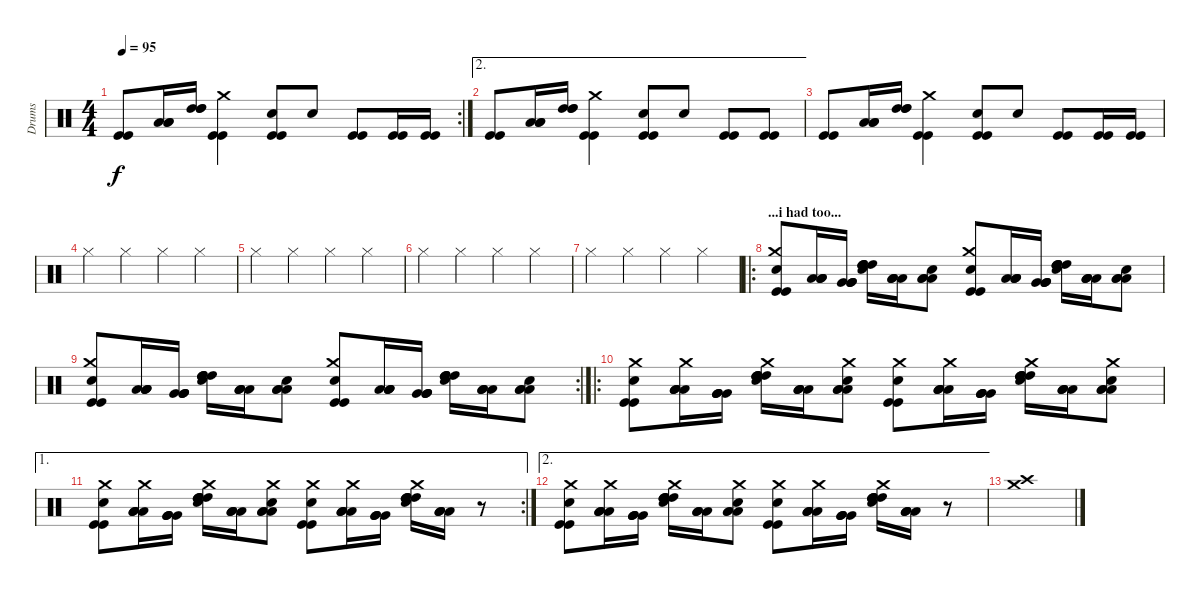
\track ("Drums" "Drums") {instrument percussion}
\staff {score}
\articulation defaults
\rc 2
\ts (4 4)
\tempo 95
\clef neutral
\ks c
("Kick (hit)" "Kick (hit)").8{dy f} ("Low Tom (hit)" "Low Tom (hit)" "Low Tom (hit)").16 ("High Tom (hit)" "High Tom (hit)" "High Tom (hit)").16 ("Crash medium (hit)" "Kick (hit)" "Kick (hit)").4 ("Snare (hit) 2" "Kick (hit)" "Kick (hit)").8 "Snare (hit) 2".8 ("Kick (hit)" "Kick (hit)").8 ("Kick (hit)" "Kick (hit)").16 ("Kick (hit)" "Kick (hit)").16 |
\ae 2
("Kick (hit)" "Kick (hit)").8 ("Low Tom (hit)" "Low Tom (hit)" "Low Tom (hit)").16 ("High Tom (hit)" "High Tom (hit)" "High Tom (hit)").16 ("Crash medium (hit)" "Kick (hit)" "Kick (hit)").4 ("Snare (hit) 2" "Kick (hit)" "Kick (hit)").8 "Snare (hit) 2".8 ("Kick (hit)" "Kick (hit)").8 ("Kick (hit)" "Kick (hit)").8 |
("Kick (hit)" "Kick (hit)").8 ("Low Tom (hit)" "Low Tom (hit)" "Low Tom (hit)").16 ("High Tom (hit)" "High Tom (hit)" "High Tom (hit)").16 ("Crash medium (hit)" "Kick (hit)" "Kick (hit)").4 ("Snare (hit) 2" "Kick (hit)" "Kick (hit)").8 "Snare (hit) 2".8 ("Kick (hit)" "Kick (hit)").8 ("Kick (hit)" "Kick (hit)").16 ("Kick (hit)" "Kick (hit)").16 |
"Hi-Hat (closed)".4{volume 6} "Hi-Hat (closed)".4 "Hi-Hat (closed)".4 "Hi-Hat (closed)".4 |
"Hi-Hat (closed)".4 "Hi-Hat (closed)".4 "Hi-Hat (closed)".4 "Hi-Hat (closed)".4 |
"Hi-Hat (closed)".4{volume 0} "Hi-Hat (closed)".4 "Hi-Hat (closed)".4 "Hi-Hat (closed)".4 |
"Hi-Hat (closed)".4 "Hi-Hat (closed)".4 "Hi-Hat (closed)".4 "Hi-Hat (closed)".4 |
\ro
\section ("" "...i had too...")
("Crash medium (hit)" "Snare (hit) 2" "Kick (hit)" "Kick (hit)").8{volume 11} ("Low Tom (hit)" "Low Tom (hit)" "Low Tom (hit)" "Low Tom (hit)").16 ("Very Low Tom (hit)" "Very Low Tom (hit)" "Very Low Tom (hit)" "Very Low Tom (hit)").16 ("High Tom (hit)" "High Tom (hit)" "High Tom (hit)" "High Tom (hit)" "Snare (hit) 2").16 ("Low Tom (hit)" "Low Tom (hit)" "Low Tom (hit)" "Low Tom (hit)").16 ("Snare (hit)" "Low Floor Tom (hit)" "Low Floor Tom (hit)" "Low Floor Tom (hit)").8 ("Crash medium (hit)" "Snare (hit) 2" "Kick (hit)" "Kick (hit)").8 ("Low Tom (hit)" "Low Tom (hit)" "Low Tom (hit)" "Low Tom (hit)").16 ("Very Low Tom (hit)" "Very Low Tom (hit)" "Very Low Tom (hit)" "Very Low Tom (hit)").16 ("High Tom (hit)" "High Tom (hit)" "High Tom (hit)" "High Tom (hit)" "Snare (hit) 2").16 ("Low Tom (hit)" "Low Tom (hit)" "Low Tom (hit)" "Low Tom (hit)").16 ("Snare (hit)" "Low Floor Tom (hit)" "Low Floor Tom (hit)" "Low Floor Tom (hit)").8 |
\rc 2
("Crash medium (hit)" "Snare (hit) 2" "Kick (hit)" "Kick (hit)").8 ("Low Tom (hit)" "Low Tom (hit)" "Low Tom (hit)" "Low Tom (hit)").16 ("Very Low Tom (hit)" "Very Low Tom (hit)" "Very Low Tom (hit)" "Very Low Tom (hit)").16 ("High Tom (hit)" "High Tom (hit)" "High Tom (hit)" "High Tom (hit)" "Snare (hit) 2").16 ("Low Tom (hit)" "Low Tom (hit)" "Low Tom (hit)" "Low Tom (hit)").16 ("Snare (hit)" "Low Floor Tom (hit)" "Low Floor Tom (hit)" "Low Floor Tom (hit)").8 ("Crash medium (hit)" "Snare (hit) 2" "Kick (hit)" "Kick (hit)").8 ("Low Tom (hit)" "Low Tom (hit)" "Low Tom (hit)" "Low Tom (hit)").16 ("Very Low Tom (hit)" "Very Low Tom (hit)" "Very Low Tom (hit)" "Very Low Tom (hit)").16 ("High Tom (hit)" "High Tom (hit)" "High Tom (hit)" "High Tom (hit)" "Snare (hit) 2").16 ("Low Tom (hit)" "Low Tom (hit)" "Low Tom (hit)" "Low Tom (hit)").16 ("Snare (hit)" "Low Floor Tom (hit)" "Low Floor Tom (hit)" "Low Floor Tom (hit)").8 |
\ro
("Crash medium (hit)" "Snare (hit) 2" "Kick (hit)" "Kick (hit)").8 ("Crash medium (hit)" "Low Tom (hit)" "Low Tom (hit)" "Low Tom (hit)" "Low Tom (hit)").16 ("Very Low Tom (hit)" "Very Low Tom (hit)" "Very Low Tom (hit)" "Very Low Tom (hit)").16 ("Crash medium (hit)" "High Tom (hit)" "High Tom (hit)" "High Tom (hit)" "High Tom (hit)" "Snare (hit) 2").16 ("Low Tom (hit)" "Low Tom (hit)" "Low Tom (hit)" "Low Tom (hit)").16 ("Crash medium (hit)" "Snare (hit)" "Low Floor Tom (hit)" "Low Floor Tom (hit)" "Low Floor Tom (hit)").8 ("Crash medium (hit)" "Snare (hit) 2" "Kick (hit)" "Kick (hit)").8 ("Crash medium (hit)" "Low Tom (hit)" "Low Tom (hit)" "Low Tom (hit)" "Low Tom (hit)").16 ("Very Low Tom (hit)" "Very Low Tom (hit)" "Very Low Tom (hit)" "Very Low Tom (hit)").16 ("Crash medium (hit)" "High Tom (hit)" "High Tom (hit)" "High Tom (hit)" "High Tom (hit)" "Snare (hit) 2").16 ("Low Tom (hit)" "Low Tom (hit)" "Low Tom (hit)" "Low Tom (hit)").16 ("Crash medium (hit)" "Snare (hit)" "Low Floor Tom (hit)" "Low Floor Tom (hit)" "Low Floor Tom (hit)").8 |
\ae 1
\rc 2
("Crash medium (hit)" "Snare (hit) 2" "Kick (hit)" "Kick (hit)").8 ("Crash medium (hit)" "Low Tom (hit)" "Low Tom (hit)" "Low Tom (hit)" "Low Tom (hit)").16 ("Very Low Tom (hit)" "Very Low Tom (hit)" "Very Low Tom (hit)" "Very Low Tom (hit)").16 ("Crash medium (hit)" "High Tom (hit)" "High Tom (hit)" "High Tom (hit)" "High Tom (hit)" "Snare (hit) 2").16 ("Low Tom (hit)" "Low Tom (hit)" "Low Tom (hit)" "Low Tom (hit)").16 ("Crash medium (hit)" "Snare (hit)" "Low Floor Tom (hit)" "Low Floor Tom (hit)" "Low Floor Tom (hit)").8 ("Crash medium (hit)" "Snare (hit) 2" "Kick (hit)" "Kick (hit)").8 ("Crash medium (hit)" "Low Tom (hit)" "Low Tom (hit)" "Low Tom (hit)" "Low Tom (hit)").16 ("Very Low Tom (hit)" "Very Low Tom (hit)" "Very Low Tom (hit)" "Very Low Tom (hit)").16 ("Crash medium (hit)" "High Tom (hit)" "High Tom (hit)" "High Tom (hit)" "High Tom (hit)" "Snare (hit) 2").16 ("Low Tom (hit)" "Low Tom (hit)" "Low Tom (hit)" "Low Tom (hit)").16 r.8 |
\ae 2
("Crash medium (hit)" "Snare (hit) 2" "Kick (hit)" "Kick (hit)").8 ("Crash medium (hit)" "Low Tom (hit)" "Low Tom (hit)" "Low Tom (hit)" "Low Tom (hit)").16 ("Very Low Tom (hit)" "Very Low Tom (hit)" "Very Low Tom (hit)" "Very Low Tom (hit)").16 ("Crash medium (hit)" "High Tom (hit)" "High Tom (hit)" "High Tom (hit)" "High Tom (hit)" "Snare (hit) 2").16 ("Low Tom (hit)" "Low Tom (hit)" "Low Tom (hit)" "Low Tom (hit)").16 ("Crash medium (hit)" "Snare (hit)" "Low Floor Tom (hit)" "Low Floor Tom (hit)" "Low Floor Tom (hit)").8 ("Crash medium (hit)" "Snare (hit) 2" "Kick (hit)" "Kick (hit)").8 ("Crash medium (hit)" "Low Tom (hit)" "Low Tom (hit)" "Low Tom (hit)" "Low Tom (hit)").16 ("Very Low Tom (hit)" "Very Low Tom (hit)" "Very Low Tom (hit)" "Very Low Tom (hit)").16 ("Crash medium (hit)" "High Tom (hit)" "High Tom (hit)" "High Tom (hit)" "High Tom (hit)" "Snare (hit) 2").16 ("Low Tom (hit)" "Low Tom (hit)" "Low Tom (hit)" "Low Tom (hit)").16 r.8 |
("Crash medium (hit)" "Crash high (hit)").1
